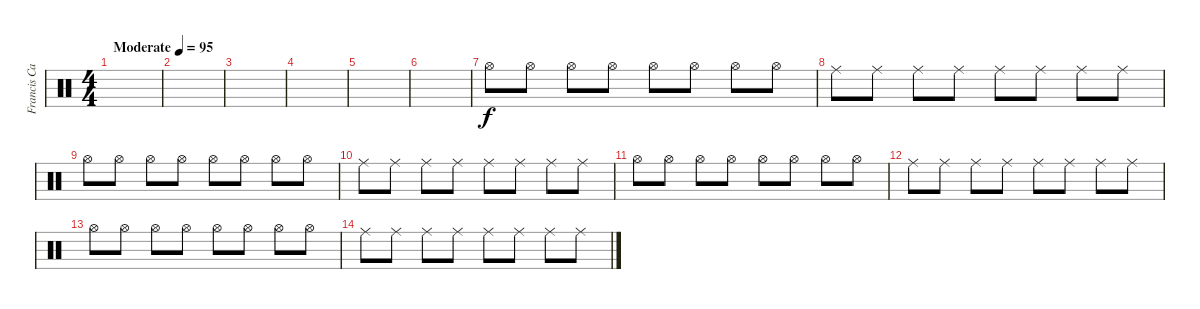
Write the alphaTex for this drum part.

\track ("Francis Cassol 2" "Francis Ca") {instrument percussion}
\staff {score}
\articulation defaults
\ts (4 4)
\tempo (95 "Moderate")
\clef neutral
\ks c
|
|
|
|
|
|
"Hi-Hat (open)".8 "Hi-Hat (open)".8 "Hi-Hat (open)".8 "Hi-Hat (open)".8 "Hi-Hat (open)".8 "Hi-Hat (open)".8 "Hi-Hat (open)".8 "Hi-Hat (open)".8 |
"Ride (middle)".8 "Ride (middle)".8 "Ride (middle)".8 "Ride (middle)".8 "Ride (middle)".8 "Ride (middle)".8 "Ride (middle)".8 "Ride (middle)".8 |
"Hi-Hat (open)".8 "Hi-Hat (open)".8 "Hi-Hat (open)".8 "Hi-Hat (open)".8 "Hi-Hat (open)".8 "Hi-Hat (open)".8 "Hi-Hat (open)".8 "Hi-Hat (open)".8 |
"Ride (middle)".8 "Ride (middle)".8 "Ride (middle)".8 "Ride (middle)".8 "Ride (middle)".8 "Ride (middle)".8 "Ride (middle)".8 "Ride (middle)".8 |
"Hi-Hat (open)".8 "Hi-Hat (open)".8 "Hi-Hat (open)".8 "Hi-Hat (open)".8 "Hi-Hat (open)".8 "Hi-Hat (open)".8 "Hi-Hat (open)".8 "Hi-Hat (open)".8 |
"Ride (middle)".8 "Ride (middle)".8 "Ride (middle)".8 "Ride (middle)".8 "Ride (middle)".8 "Ride (middle)".8 "Ride (middle)".8 "Ride (middle)".8 |
"Hi-Hat (open)".8 "Hi-Hat (open)".8 "Hi-Hat (open)".8 "Hi-Hat (open)".8 "Hi-Hat (open)".8 "Hi-Hat (open)".8 "Hi-Hat (open)".8 "Hi-Hat (open)".8 |
"Ride (middle)".8 "Ride (middle)".8 "Ride (middle)".8 "Ride (middle)".8 "Ride (middle)".8 "Ride (middle)".8 "Ride (middle)".8 "Ride (middle)".8
